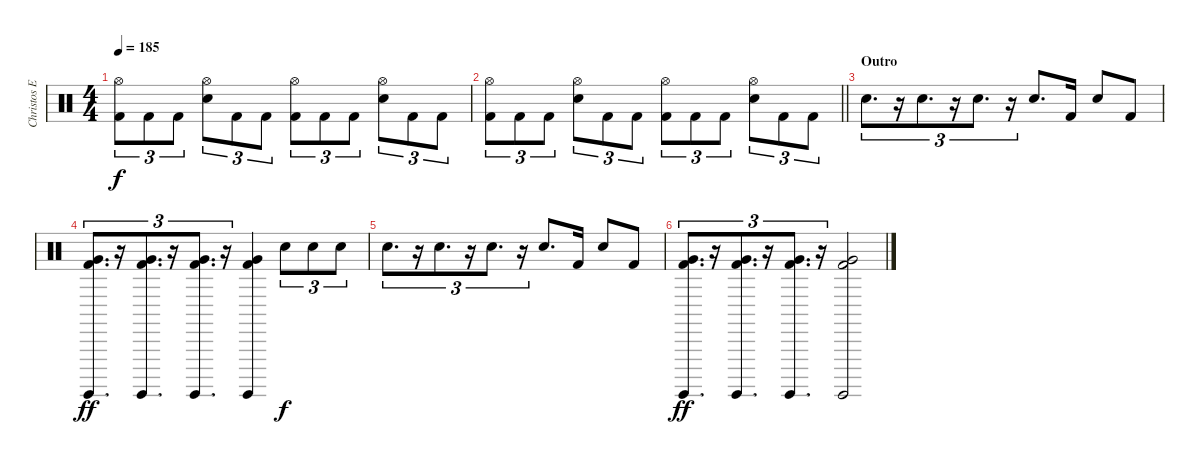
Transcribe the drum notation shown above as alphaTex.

\track ("Christos Ephitimiadis (drums)" "Christos E") {instrument percussion}
\staff {score}
\articulation defaults
\ts (4 4)
\tempo 185
\clef neutral
\ks c
("Hi-Hat (open)" "Kick (hit) 2").8{tu (3 2) dy f} "Kick (hit) 2".8{tu (3 2)} "Kick (hit) 2".8{tu (3 2)} ("Hi-Hat (open)" "Snare (hit) 2").8{tu (3 2)} "Kick (hit) 2".8{tu (3 2)} "Kick (hit) 2".8{tu (3 2)} ("Hi-Hat (open)" "Kick (hit) 2").8{tu (3 2)} "Kick (hit) 2".8{tu (3 2)} "Kick (hit) 2".8{tu (3 2)} ("Hi-Hat (open)" "Snare (hit) 2").8{tu (3 2)} "Kick (hit) 2".8{tu (3 2)} "Kick (hit) 2".8{tu (3 2)} |
\barLineRight lightlight
("Hi-Hat (open)" "Kick (hit) 2").8{tu (3 2)} "Kick (hit) 2".8{tu (3 2)} "Kick (hit) 2".8{tu (3 2)} ("Hi-Hat (open)" "Snare (hit) 2").8{tu (3 2)} "Kick (hit) 2".8{tu (3 2)} "Kick (hit) 2".8{tu (3 2)} ("Hi-Hat (open)" "Kick (hit) 2").8{tu (3 2)} "Kick (hit) 2".8{tu (3 2)} "Kick (hit) 2".8{tu (3 2)} ("Hi-Hat (open)" "Snare (hit) 2").8{tu (3 2)} "Kick (hit) 2".8{tu (3 2)} "Kick (hit) 2".8{tu (3 2)} |
\section ("" "Outro")
"Snare (hit) 2".8{d tu (3 2)} r.16{tu (3 2)} "Snare (hit) 2".8{d tu (3 2)} r.16{tu (3 2)} "Snare (hit) 2".8{d tu (3 2)} r.16{tu (3 2)} "Snare (hit) 2".8{d} "Kick (hit) 2".16 "Snare (hit) 2".8 "Kick (hit) 2".8 |
("Surdo (hit)" "Very Low Tom (hit)" "Kick (hit) 2").8{d tu (3 2) dy ff} r.16{tu (3 2)} ("Surdo (hit)" "Very Low Tom (hit)" "Kick (hit) 2").8{d tu (3 2)} r.16{tu (3 2)} ("Surdo (hit)" "Very Low Tom (hit)" "Kick (hit) 2").8{d tu (3 2)} r.16{tu (3 2)} ("Surdo (hit)" "Very Low Tom (hit)" "Kick (hit) 2").4 "Snare (hit) 2".8{tu (3 2) dy f} "Snare (hit) 2".8{tu (3 2)} "Snare (hit) 2".8{tu (3 2)} |
"Snare (hit) 2".8{d tu (3 2)} r.16{tu (3 2)} "Snare (hit) 2".8{d tu (3 2)} r.16{tu (3 2)} "Snare (hit) 2".8{d tu (3 2)} r.16{tu (3 2)} "Snare (hit) 2".8{d} "Kick (hit) 2".16 "Snare (hit) 2".8 "Kick (hit) 2".8 |
("Surdo (hit)" "Very Low Tom (hit)" "Kick (hit) 2").8{d tu (3 2) dy ff} r.16{tu (3 2)} ("Surdo (hit)" "Very Low Tom (hit)" "Kick (hit) 2").8{d tu (3 2)} r.16{tu (3 2)} ("Surdo (hit)" "Very Low Tom (hit)" "Kick (hit) 2").8{d tu (3 2)} r.16{tu (3 2)} ("Surdo (hit)" "Very Low Tom (hit)" "Kick (hit) 2").2
